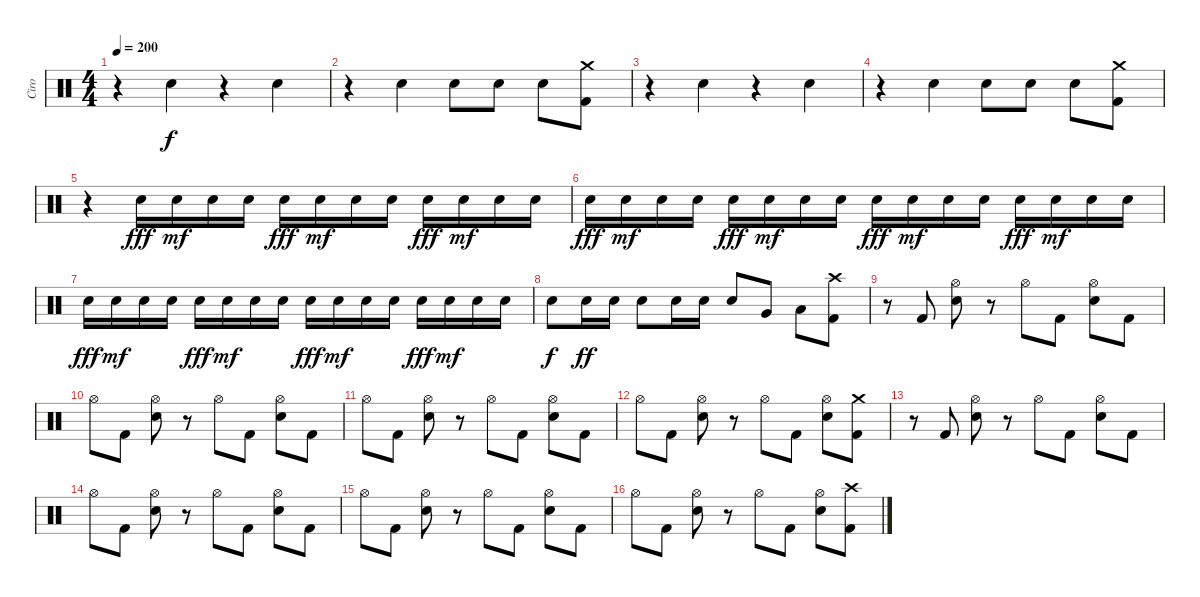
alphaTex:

\track ("Ciro" "Ciro") {instrument percussion}
\staff {score}
\articulation defaults
\ts (4 4)
\tempo 200
\clef neutral
\ks c
r.4{dy f} "Snare (hit) 2".4 r.4 "Snare (hit) 2".4 |
r.4 "Snare (hit) 2".4 "Snare (hit) 2".8 "Snare (hit) 2".8 "Snare (hit) 2".8 ("Crash medium (hit)" "Kick (hit) 2").8 |
r.4 "Snare (hit) 2".4 r.4 "Snare (hit) 2".4 |
r.4 "Snare (hit) 2".4 "Snare (hit) 2".8 "Snare (hit) 2".8 "Snare (hit) 2".8 ("Crash medium (hit)" "Kick (hit) 2").8 |
r.4 "Snare (hit) 2".16{dy fff} "Snare (hit) 2".16{dy mf} "Snare (hit) 2".16 "Snare (hit) 2".16 "Snare (hit) 2".16{dy fff} "Snare (hit) 2".16{dy mf} "Snare (hit) 2".16 "Snare (hit) 2".16 "Snare (hit) 2".16{dy fff} "Snare (hit) 2".16{dy mf} "Snare (hit) 2".16 "Snare (hit) 2".16 |
"Snare (hit) 2".16{dy fff} "Snare (hit) 2".16{dy mf} "Snare (hit) 2".16 "Snare (hit) 2".16 "Snare (hit) 2".16{dy fff} "Snare (hit) 2".16{dy mf} "Snare (hit) 2".16 "Snare (hit) 2".16 "Snare (hit) 2".16{dy fff} "Snare (hit) 2".16{dy mf} "Snare (hit) 2".16 "Snare (hit) 2".16 "Snare (hit) 2".16{dy fff} "Snare (hit) 2".16{dy mf} "Snare (hit) 2".16 "Snare (hit) 2".16 |
"Snare (hit) 2".16{dy fff} "Snare (hit) 2".16{dy mf} "Snare (hit) 2".16 "Snare (hit) 2".16 "Snare (hit) 2".16{dy fff} "Snare (hit) 2".16{dy mf} "Snare (hit) 2".16 "Snare (hit) 2".16 "Snare (hit) 2".16{dy fff} "Snare (hit) 2".16{dy mf} "Snare (hit) 2".16 "Snare (hit) 2".16 "Snare (hit) 2".16{dy fff} "Snare (hit) 2".16{dy mf} "Snare (hit) 2".16 "Snare (hit) 2".16 |
"Snare (hit) 2".8{dy f} "Snare (hit) 2".16{dy ff} "Snare (hit) 2".16 "Snare (hit) 2".8 "Snare (hit) 2".16 "Snare (hit) 2".16 "Snare (hit) 2".8 "Very Low Tom (hit)".8 "Low Floor Tom (hit)".8 ("Crash high (hit)" "Kick (hit) 2").8 |
r.8 "Kick (hit) 2".8 ("Hi-Hat (open)" "Snare (hit) 2").8 r.8 "Hi-Hat (open)".8 "Kick (hit) 2".8 ("Hi-Hat (open)" "Snare (hit) 2").8 "Kick (hit) 2".8 |
"Hi-Hat (open)".8 "Kick (hit) 2".8 ("Hi-Hat (open)" "Snare (hit) 2").8 r.8 "Hi-Hat (open)".8 "Kick (hit) 2".8 ("Hi-Hat (open)" "Snare (hit) 2").8 "Kick (hit) 2".8 |
"Hi-Hat (open)".8 "Kick (hit) 2".8 ("Hi-Hat (open)" "Snare (hit) 2").8 r.8 "Hi-Hat (open)".8 "Kick (hit) 2".8 ("Hi-Hat (open)" "Snare (hit) 2").8 "Kick (hit) 2".8 |
"Hi-Hat (open)".8 "Kick (hit) 2".8 ("Hi-Hat (open)" "Snare (hit) 2").8 r.8 "Hi-Hat (open)".8 "Kick (hit) 2".8 ("Hi-Hat (open)" "Snare (hit) 2").8 ("Crash medium (hit)" "Kick (hit) 2").8 |
r.8 "Kick (hit) 2".8 ("Hi-Hat (open)" "Snare (hit) 2").8 r.8 "Hi-Hat (open)".8 "Kick (hit) 2".8 ("Hi-Hat (open)" "Snare (hit) 2").8 "Kick (hit) 2".8 |
"Hi-Hat (open)".8 "Kick (hit) 2".8 ("Hi-Hat (open)" "Snare (hit) 2").8 r.8 "Hi-Hat (open)".8 "Kick (hit) 2".8 ("Hi-Hat (open)" "Snare (hit) 2").8 "Kick (hit) 2".8 |
"Hi-Hat (open)".8 "Kick (hit) 2".8 ("Hi-Hat (open)" "Snare (hit) 2").8 r.8 "Hi-Hat (open)".8 "Kick (hit) 2".8 ("Hi-Hat (open)" "Snare (hit) 2").8 "Kick (hit) 2".8 |
"Hi-Hat (open)".8 "Kick (hit) 2".8 ("Hi-Hat (open)" "Snare (hit) 2").8 r.8 "Hi-Hat (open)".8 "Kick (hit) 2".8 ("Hi-Hat (open)" "Snare (hit) 2").8 ("Crash high (hit)" "Kick (hit) 2").8
